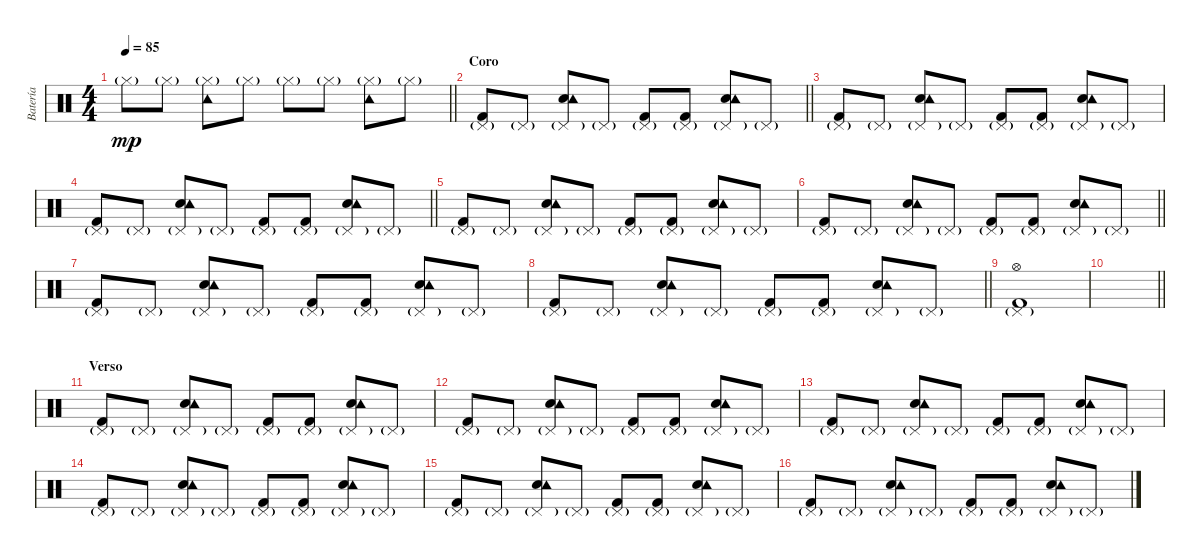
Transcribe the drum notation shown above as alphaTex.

\track ("Batería" "Batería") {instrument percussion}
\staff {score}
\articulation defaults
\ts (4 4)
\tempo 85
\clef neutral
\barLineRight lightlight
\ks c "Hi-Hat (closed)"{g}.8{dy mp} "Hi-Hat (closed)"{g}.8
("Tambourine (hit)" "Hi-Hat (closed)"{g}).8 "Hi-Hat (closed)"{g}.8 "Hi-Hat (closed)"{g}.8 "Hi-Hat (closed)"{g}.8 ("Tambourine (hit)" "Hi-Hat (closed)"{g}).8 "Hi-Hat (closed)"{g}.8 |
\section ("" "Coro")
\barLineRight lightlight
("Pedal Hi-Hat (hit)"{g} "Kick (hit) 2").8 "Pedal Hi-Hat (hit)"{g}.8 ("Pedal Hi-Hat (hit)"{g} "Electric Snare (hit)" "Tambourine (hit)").8 "Pedal Hi-Hat (hit)"{g}.8 ("Pedal Hi-Hat (hit)"{g} "Kick (hit) 2").8 ("Pedal Hi-Hat (hit)"{g} "Kick (hit) 2").8 ("Pedal Hi-Hat (hit)"{g} "Electric Snare (hit)" "Tambourine (hit)").8 "Pedal Hi-Hat (hit)"{g}.8 |
("Pedal Hi-Hat (hit)"{g} "Kick (hit) 2").8 "Pedal Hi-Hat (hit)"{g}.8 ("Pedal Hi-Hat (hit)"{g} "Electric Snare (hit)" "Tambourine (hit)").8 "Pedal Hi-Hat (hit)"{g}.8 ("Pedal Hi-Hat (hit)"{g} "Kick (hit) 2").8 ("Pedal Hi-Hat (hit)"{g} "Kick (hit) 2").8 ("Pedal Hi-Hat (hit)"{g} "Electric Snare (hit)" "Tambourine (hit)").8 "Pedal Hi-Hat (hit)"{g}.8 |
\barLineRight lightlight
("Pedal Hi-Hat (hit)"{g} "Kick (hit) 2").8 "Pedal Hi-Hat (hit)"{g}.8 ("Pedal Hi-Hat (hit)"{g} "Electric Snare (hit)" "Tambourine (hit)").8 "Pedal Hi-Hat (hit)"{g}.8 ("Pedal Hi-Hat (hit)"{g} "Kick (hit) 2").8 ("Pedal Hi-Hat (hit)"{g} "Kick (hit) 2").8 ("Pedal Hi-Hat (hit)"{g} "Electric Snare (hit)" "Tambourine (hit)").8 "Pedal Hi-Hat (hit)"{g}.8 |
("Pedal Hi-Hat (hit)"{g} "Kick (hit) 2").8 "Pedal Hi-Hat (hit)"{g}.8 ("Pedal Hi-Hat (hit)"{g} "Electric Snare (hit)" "Tambourine (hit)").8 "Pedal Hi-Hat (hit)"{g}.8 ("Pedal Hi-Hat (hit)"{g} "Kick (hit) 2").8 ("Pedal Hi-Hat (hit)"{g} "Kick (hit) 2").8 ("Pedal Hi-Hat (hit)"{g} "Electric Snare (hit)" "Tambourine (hit)").8 "Pedal Hi-Hat (hit)"{g}.8 |
\barLineRight lightlight
("Pedal Hi-Hat (hit)"{g} "Kick (hit) 2").8 "Pedal Hi-Hat (hit)"{g}.8 ("Pedal Hi-Hat (hit)"{g} "Electric Snare (hit)" "Tambourine (hit)").8 "Pedal Hi-Hat (hit)"{g}.8 ("Pedal Hi-Hat (hit)"{g} "Kick (hit) 2").8 ("Pedal Hi-Hat (hit)"{g} "Kick (hit) 2").8 ("Pedal Hi-Hat (hit)"{g} "Electric Snare (hit)" "Tambourine (hit)").8 "Pedal Hi-Hat (hit)"{g}.8 |
("Pedal Hi-Hat (hit)"{g} "Kick (hit) 2").8 "Pedal Hi-Hat (hit)"{g}.8 ("Pedal Hi-Hat (hit)"{g} "Electric Snare (hit)" "Tambourine (hit)").8 "Pedal Hi-Hat (hit)"{g}.8 ("Pedal Hi-Hat (hit)"{g} "Kick (hit) 2").8 ("Pedal Hi-Hat (hit)"{g} "Kick (hit) 2").8 ("Pedal Hi-Hat (hit)"{g} "Electric Snare (hit)" "Tambourine (hit)").8 "Pedal Hi-Hat (hit)"{g}.8 |
\barLineRight lightlight
("Pedal Hi-Hat (hit)"{g} "Kick (hit) 2").8 "Pedal Hi-Hat (hit)"{g}.8 ("Pedal Hi-Hat (hit)"{g} "Electric Snare (hit)" "Tambourine (hit)").8 "Pedal Hi-Hat (hit)"{g}.8 ("Pedal Hi-Hat (hit)"{g} "Kick (hit) 2").8 ("Pedal Hi-Hat (hit)"{g} "Kick (hit) 2").8 ("Pedal Hi-Hat (hit)"{g} "Electric Snare (hit)" "Tambourine (hit)").8 "Pedal Hi-Hat (hit)"{g}.8 |
("Pedal Hi-Hat (hit)"{g} "Kick (hit) 2" "Hi-Hat (open)").1 |
\barLineRight lightlight
|
\section ("" "Verso")
("Pedal Hi-Hat (hit)"{g} "Kick (hit) 2").8 "Pedal Hi-Hat (hit)"{g}.8 ("Pedal Hi-Hat (hit)"{g} "Electric Snare (hit)" "Tambourine (hit)").8 "Pedal Hi-Hat (hit)"{g}.8 ("Pedal Hi-Hat (hit)"{g} "Kick (hit) 2").8 ("Pedal Hi-Hat (hit)"{g} "Kick (hit) 2").8 ("Pedal Hi-Hat (hit)"{g} "Electric Snare (hit)" "Tambourine (hit)").8 "Pedal Hi-Hat (hit)"{g}.8 |
("Pedal Hi-Hat (hit)"{g} "Kick (hit) 2").8 "Pedal Hi-Hat (hit)"{g}.8 ("Pedal Hi-Hat (hit)"{g} "Electric Snare (hit)" "Tambourine (hit)").8 "Pedal Hi-Hat (hit)"{g}.8 ("Pedal Hi-Hat (hit)"{g} "Kick (hit) 2").8 ("Pedal Hi-Hat (hit)"{g} "Kick (hit) 2").8 ("Pedal Hi-Hat (hit)"{g} "Electric Snare (hit)" "Tambourine (hit)").8 "Pedal Hi-Hat (hit)"{g}.8 |
("Pedal Hi-Hat (hit)"{g} "Kick (hit) 2").8 "Pedal Hi-Hat (hit)"{g}.8 ("Pedal Hi-Hat (hit)"{g} "Electric Snare (hit)" "Tambourine (hit)").8 "Pedal Hi-Hat (hit)"{g}.8 ("Pedal Hi-Hat (hit)"{g} "Kick (hit) 2").8 ("Pedal Hi-Hat (hit)"{g} "Kick (hit) 2").8 ("Pedal Hi-Hat (hit)"{g} "Electric Snare (hit)" "Tambourine (hit)").8 "Pedal Hi-Hat (hit)"{g}.8 |
("Pedal Hi-Hat (hit)"{g} "Kick (hit) 2").8 "Pedal Hi-Hat (hit)"{g}.8 ("Pedal Hi-Hat (hit)"{g} "Electric Snare (hit)" "Tambourine (hit)").8 "Pedal Hi-Hat (hit)"{g}.8 ("Pedal Hi-Hat (hit)"{g} "Kick (hit) 2").8 ("Pedal Hi-Hat (hit)"{g} "Kick (hit) 2").8 ("Pedal Hi-Hat (hit)"{g} "Electric Snare (hit)" "Tambourine (hit)").8 "Pedal Hi-Hat (hit)"{g}.8 |
("Pedal Hi-Hat (hit)"{g} "Kick (hit) 2").8 "Pedal Hi-Hat (hit)"{g}.8 ("Pedal Hi-Hat (hit)"{g} "Electric Snare (hit)" "Tambourine (hit)").8 "Pedal Hi-Hat (hit)"{g}.8 ("Pedal Hi-Hat (hit)"{g} "Kick (hit) 2").8 ("Pedal Hi-Hat (hit)"{g} "Kick (hit) 2").8 ("Pedal Hi-Hat (hit)"{g} "Electric Snare (hit)" "Tambourine (hit)").8 "Pedal Hi-Hat (hit)"{g}.8 |
("Pedal Hi-Hat (hit)"{g} "Kick (hit) 2").8 "Pedal Hi-Hat (hit)"{g}.8 ("Pedal Hi-Hat (hit)"{g} "Electric Snare (hit)" "Tambourine (hit)").8 "Pedal Hi-Hat (hit)"{g}.8 ("Pedal Hi-Hat (hit)"{g} "Kick (hit) 2").8 ("Pedal Hi-Hat (hit)"{g} "Kick (hit) 2").8 ("Pedal Hi-Hat (hit)"{g} "Electric Snare (hit)" "Tambourine (hit)").8 "Pedal Hi-Hat (hit)"{g}.8
